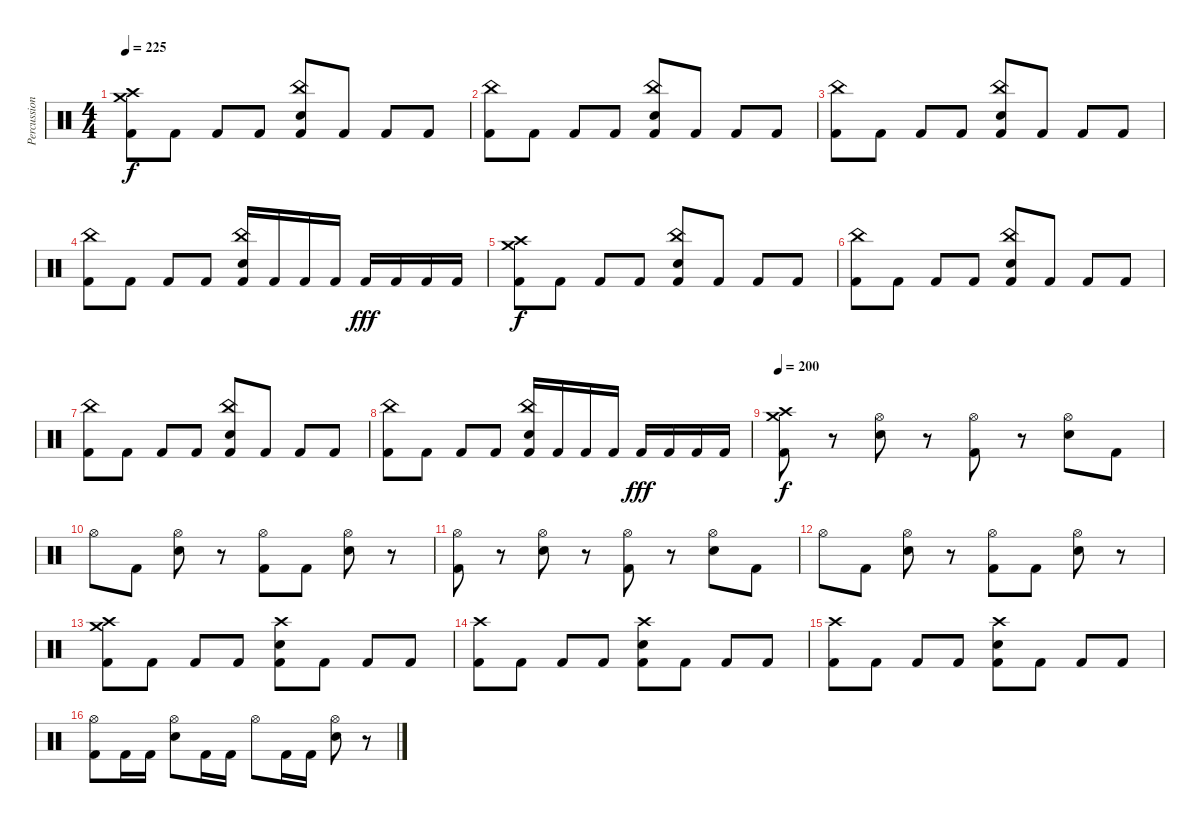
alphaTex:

\track ("Percussion" "Percussion") {instrument percussion}
\staff {score}
\articulation defaults
\ts (4 4)
\tempo 225
\clef neutral
\ks c
("Crash high (hit)" "Crash medium (hit)" "Kick (hit) 2").8{dy f} "Kick (hit) 2".8 "Kick (hit) 2".8 "Kick (hit) 2".8 ("China (hit)" "Snare (hit) 2" "Kick (hit) 2").8 "Kick (hit) 2".8 "Kick (hit) 2".8 "Kick (hit) 2".8 |
("China (hit)" "Kick (hit) 2").8 "Kick (hit) 2".8 "Kick (hit) 2".8 "Kick (hit) 2".8 ("China (hit)" "Snare (hit) 2" "Kick (hit) 2").8 "Kick (hit) 2".8 "Kick (hit) 2".8 "Kick (hit) 2".8 |
("China (hit)" "Kick (hit) 2").8 "Kick (hit) 2".8 "Kick (hit) 2".8 "Kick (hit) 2".8 ("China (hit)" "Snare (hit) 2" "Kick (hit) 2").8 "Kick (hit) 2".8 "Kick (hit) 2".8 "Kick (hit) 2".8 |
("China (hit)" "Kick (hit) 2").8 "Kick (hit) 2".8 "Kick (hit) 2".8 "Kick (hit) 2".8 ("China (hit)" "Snare (hit) 2" "Kick (hit) 2").16 "Kick (hit) 2".16 "Kick (hit) 2".16 "Kick (hit) 2".16 "Kick (hit) 2".16{dy fff} "Kick (hit) 2".16 "Kick (hit) 2".16 "Kick (hit) 2".16 |
("Crash high (hit)" "Crash medium (hit)" "Kick (hit) 2").8{dy f} "Kick (hit) 2".8 "Kick (hit) 2".8 "Kick (hit) 2".8 ("China (hit)" "Snare (hit) 2" "Kick (hit) 2").8 "Kick (hit) 2".8 "Kick (hit) 2".8 "Kick (hit) 2".8 |
("China (hit)" "Kick (hit) 2").8 "Kick (hit) 2".8 "Kick (hit) 2".8 "Kick (hit) 2".8 ("China (hit)" "Snare (hit) 2" "Kick (hit) 2").8 "Kick (hit) 2".8 "Kick (hit) 2".8 "Kick (hit) 2".8 |
("China (hit)" "Kick (hit) 2").8 "Kick (hit) 2".8 "Kick (hit) 2".8 "Kick (hit) 2".8 ("China (hit)" "Snare (hit) 2" "Kick (hit) 2").8 "Kick (hit) 2".8 "Kick (hit) 2".8 "Kick (hit) 2".8 |
("China (hit)" "Kick (hit) 2").8 "Kick (hit) 2".8 "Kick (hit) 2".8 "Kick (hit) 2".8 ("China (hit)" "Snare (hit) 2" "Kick (hit) 2").16 "Kick (hit) 2".16 "Kick (hit) 2".16 "Kick (hit) 2".16 "Kick (hit) 2".16{dy fff} "Kick (hit) 2".16 "Kick (hit) 2".16 "Kick (hit) 2".16 |
\tempo 200
("Crash high (hit)" "Crash medium (hit)" "Kick (hit) 2").8{dy f} r.8 ("Hi-Hat (open)" "Snare (hit) 2").8 r.8 ("Hi-Hat (open)" "Kick (hit) 2").8 r.8 ("Hi-Hat (open)" "Snare (hit) 2").8 "Kick (hit) 2".8 |
"Hi-Hat (open)".8 "Kick (hit) 2".8 ("Hi-Hat (open)" "Snare (hit) 2").8 r.8 ("Hi-Hat (open)" "Kick (hit) 2").8 "Kick (hit) 2".8 ("Hi-Hat (open)" "Snare (hit) 2").8 r.8 |
("Hi-Hat (open)" "Kick (hit) 2").8 r.8 ("Hi-Hat (open)" "Snare (hit) 2").8 r.8 ("Hi-Hat (open)" "Kick (hit) 2").8 r.8 ("Hi-Hat (open)" "Snare (hit) 2").8 "Kick (hit) 2".8 |
"Hi-Hat (open)".8 "Kick (hit) 2".8 ("Hi-Hat (open)" "Snare (hit) 2").8 r.8 ("Hi-Hat (open)" "Kick (hit) 2").8 "Kick (hit) 2".8 ("Hi-Hat (open)" "Snare (hit) 2").8 r.8 |
("Crash high (hit)" "Crash medium (hit)" "Kick (hit) 2").8 "Kick (hit) 2".8 "Kick (hit) 2".8 "Kick (hit) 2".8 ("Crash high (hit)" "Snare (hit) 2" "Kick (hit) 2").8 "Kick (hit) 2".8 "Kick (hit) 2".8 "Kick (hit) 2".8 |
("Crash high (hit)" "Kick (hit) 2").8 "Kick (hit) 2".8 "Kick (hit) 2".8 "Kick (hit) 2".8 ("Crash high (hit)" "Snare (hit) 2" "Kick (hit) 2").8 "Kick (hit) 2".8 "Kick (hit) 2".8 "Kick (hit) 2".8 |
("Crash high (hit)" "Kick (hit) 2").8 "Kick (hit) 2".8 "Kick (hit) 2".8 "Kick (hit) 2".8 ("Crash high (hit)" "Snare (hit) 2" "Kick (hit) 2").8 "Kick (hit) 2".8 "Kick (hit) 2".8 "Kick (hit) 2".8 |
("Hi-Hat (open)" "Kick (hit) 2").8 "Kick (hit) 2".16 "Kick (hit) 2".16 ("Hi-Hat (open)" "Snare (hit) 2").8 "Kick (hit) 2".16 "Kick (hit) 2".16 "Hi-Hat (open)".8 "Kick (hit) 2".16 "Kick (hit) 2".16 ("Hi-Hat (open)" "Snare (hit) 2").8 r.8
